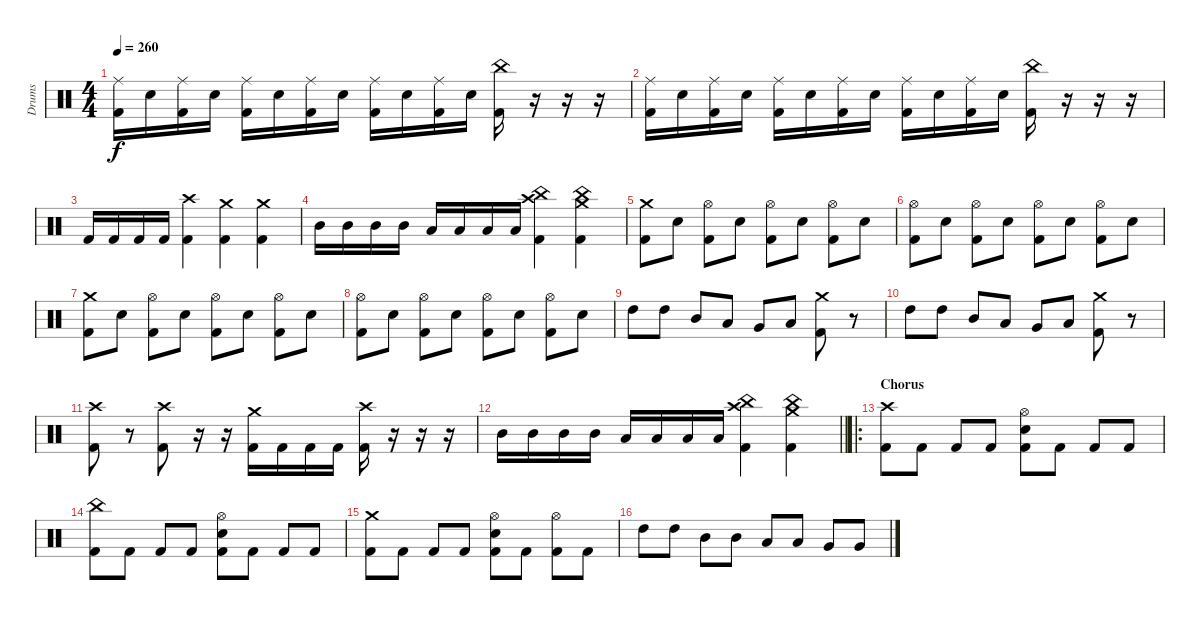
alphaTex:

\track ("Drums" "Drums") {instrument percussion}
\staff {score}
\articulation defaults
\ts (4 4)
\tempo 260
\clef neutral
\ks c
("Ride (middle)" "Kick (hit) 2").16{dy f} "Electric Snare (hit)".16 ("Ride (middle)" "Kick (hit) 2").16 "Electric Snare (hit)".16 ("Ride (middle)" "Kick (hit) 2").16 "Electric Snare (hit)".16 ("Ride (middle)" "Kick (hit) 2").16 "Electric Snare (hit)".16 ("Ride (middle)" "Kick (hit) 2").16 "Electric Snare (hit)".16 ("Ride (middle)" "Kick (hit) 2").16 "Electric Snare (hit)".16 ("China (hit)" "Kick (hit) 2").16 r.16 r.16 r.16 |
("Ride (middle)" "Kick (hit) 2").16 "Electric Snare (hit)".16 ("Ride (middle)" "Kick (hit) 2").16 "Electric Snare (hit)".16 ("Ride (middle)" "Kick (hit) 2").16 "Electric Snare (hit)".16 ("Ride (middle)" "Kick (hit) 2").16 "Electric Snare (hit)".16 ("Ride (middle)" "Kick (hit) 2").16 "Electric Snare (hit)".16 ("Ride (middle)" "Kick (hit) 2").16 "Electric Snare (hit)".16 ("China (hit)" "Kick (hit) 2").16 r.16 r.16 r.16 |
"Kick (hit) 2".16 "Kick (hit) 2".16 "Kick (hit) 2".16 "Kick (hit) 2".16 ("Crash high (hit)" "Kick (hit) 2").4 ("Crash medium (hit)" "Kick (hit) 2").4 ("Crash medium (hit)" "Kick (hit) 2").4 |
"Mid Tom (hit)".16 "Mid Tom (hit)".16 "Mid Tom (hit)".16 "Mid Tom (hit)".16 "Low Tom (hit)".16 "Low Tom (hit)".16 "Low Tom (hit)".16 "Low Tom (hit)".16 ("China (hit)" "Crash high (hit)" "Kick (hit) 2").4 ("China (hit)" "Crash medium (hit)" "Kick (hit) 2").4 |
("Crash medium (hit)" "Kick (hit) 2").8 "Electric Snare (hit)".8 ("Hi-Hat (open)" "Kick (hit) 2").8 "Electric Snare (hit)".8 ("Hi-Hat (open)" "Kick (hit) 2").8 "Electric Snare (hit)".8 ("Hi-Hat (open)" "Kick (hit) 2").8 "Electric Snare (hit)".8 |
("Hi-Hat (open)" "Kick (hit) 2").8 "Electric Snare (hit)".8 ("Hi-Hat (open)" "Kick (hit) 2").8 "Electric Snare (hit)".8 ("Hi-Hat (open)" "Kick (hit) 2").8 "Electric Snare (hit)".8 ("Hi-Hat (open)" "Kick (hit) 2").8 "Electric Snare (hit)".8 |
("Crash medium (hit)" "Kick (hit) 2").8 "Electric Snare (hit)".8 ("Hi-Hat (open)" "Kick (hit) 2").8 "Electric Snare (hit)".8 ("Hi-Hat (open)" "Kick (hit) 2").8 "Electric Snare (hit)".8 ("Hi-Hat (open)" "Kick (hit) 2").8 "Electric Snare (hit)".8 |
("Hi-Hat (open)" "Kick (hit) 2").8 "Electric Snare (hit)".8 ("Hi-Hat (open)" "Kick (hit) 2").8 "Electric Snare (hit)".8 ("Hi-Hat (open)" "Kick (hit) 2").8 "Electric Snare (hit)".8 ("Hi-Hat (open)" "Kick (hit) 2").8 "Electric Snare (hit)".8 |
"High Tom (hit)".8 "High Tom (hit)".8 "Mid Tom (hit)".8 "Low Tom (hit)".8 "Very Low Tom (hit)".8 "Low Floor Tom (hit)".8 ("Crash medium (hit)" "Kick (hit) 2").8 r.8 |
"High Tom (hit)".8 "High Tom (hit)".8 "Mid Tom (hit)".8 "Low Tom (hit)".8 "Very Low Tom (hit)".8 "Low Floor Tom (hit)".8 ("Crash medium (hit)" "Kick (hit) 2").8 r.8 |
("Crash high (hit)" "Kick (hit) 2").8 r.8 ("Crash high (hit)" "Kick (hit) 2").8 r.16 r.16 ("Crash medium (hit)" "Kick (hit) 2").16 "Kick (hit) 2".16 "Kick (hit) 2".16 "Kick (hit) 2".16 ("Crash high (hit)" "Kick (hit) 2").16 r.16 r.16 r.16 |
\barLineRight lightlight "Mid Tom (hit)".16 "Mid Tom (hit)".16 "Mid Tom (hit)".16 "Mid Tom (hit)".16 "Low Tom (hit)".16 "Low Tom (hit)".16 "Low Tom (hit)".16 "Low Tom (hit)".16
("China (hit)" "Crash high (hit)" "Kick (hit) 2").4 ("China (hit)" "Crash medium (hit)" "Kick (hit) 2").4 |
\ro
\section ("" "Chorus")
("Crash high (hit)" "Kick (hit) 2").8 "Kick (hit) 2".8 "Kick (hit) 2".8 "Kick (hit) 2".8 ("Hi-Hat (open)" "Electric Snare (hit)" "Kick (hit) 2").8 "Kick (hit) 2".8 "Kick (hit) 2".8 "Kick (hit) 2".8 |
("China (hit)" "Kick (hit) 2").8 "Kick (hit) 2".8 "Kick (hit) 2".8 "Kick (hit) 2".8 ("Hi-Hat (open)" "Electric Snare (hit)" "Kick (hit) 2").8 "Kick (hit) 2".8 "Kick (hit) 2".8 "Kick (hit) 2".8 |
("Crash medium (hit)" "Kick (hit) 2").8 "Kick (hit) 2".8 "Kick (hit) 2".8 "Kick (hit) 2".8 ("Hi-Hat (open)" "Electric Snare (hit)" "Kick (hit) 2").8 "Kick (hit) 2".8 ("Hi-Hat (open)" "Kick (hit) 2").8 "Kick (hit) 2".8 |
"High Tom (hit)".8 "High Tom (hit)".8 "Mid Tom (hit)".8 "Mid Tom (hit)".8 "Low Tom (hit)".8 "Low Tom (hit)".8 "Very Low Tom (hit)".8 "Very Low Tom (hit)".8
